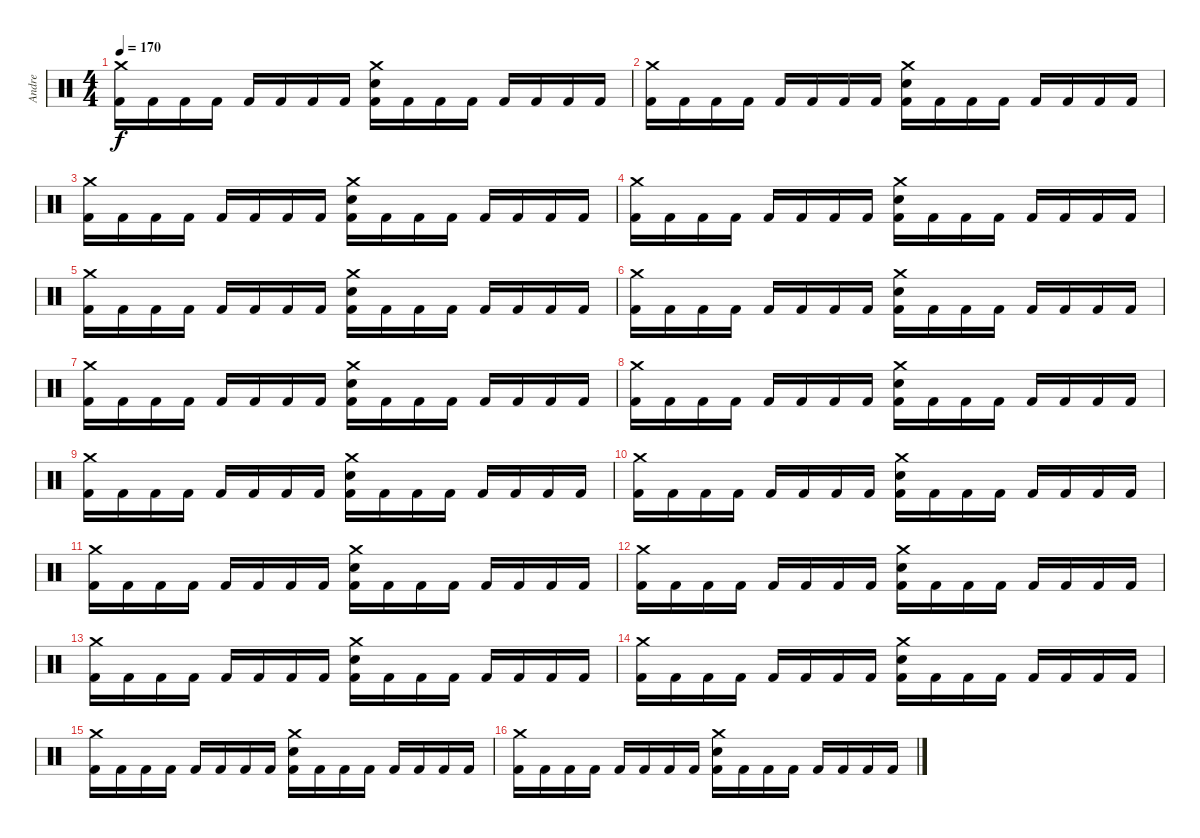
\track ("Andre" "Andre") {instrument percussion}
\staff {score}
\articulation defaults
\ts (4 4)
\tempo 170
\clef neutral
\ks c
("Crash medium (hit)" "Kick (hit) 2").16{dy f} "Kick (hit) 2".16 "Kick (hit) 2".16 "Kick (hit) 2".16 "Kick (hit) 2".16 "Kick (hit) 2".16 "Kick (hit) 2".16 "Kick (hit) 2".16 ("Crash medium (hit)" "Snare (hit) 2" "Kick (hit) 2").16 "Kick (hit) 2".16 "Kick (hit) 2".16 "Kick (hit) 2".16 "Kick (hit) 2".16 "Kick (hit) 2".16 "Kick (hit) 2".16 "Kick (hit) 2".16 |
("Crash medium (hit)" "Kick (hit) 2").16 "Kick (hit) 2".16 "Kick (hit) 2".16 "Kick (hit) 2".16 "Kick (hit) 2".16 "Kick (hit) 2".16 "Kick (hit) 2".16 "Kick (hit) 2".16 ("Crash medium (hit)" "Snare (hit) 2" "Kick (hit) 2").16 "Kick (hit) 2".16 "Kick (hit) 2".16 "Kick (hit) 2".16 "Kick (hit) 2".16 "Kick (hit) 2".16 "Kick (hit) 2".16 "Kick (hit) 2".16 |
("Crash medium (hit)" "Kick (hit) 2").16 "Kick (hit) 2".16 "Kick (hit) 2".16 "Kick (hit) 2".16 "Kick (hit) 2".16 "Kick (hit) 2".16 "Kick (hit) 2".16 "Kick (hit) 2".16 ("Crash medium (hit)" "Snare (hit) 2" "Kick (hit) 2").16 "Kick (hit) 2".16 "Kick (hit) 2".16 "Kick (hit) 2".16 "Kick (hit) 2".16 "Kick (hit) 2".16 "Kick (hit) 2".16 "Kick (hit) 2".16 |
("Crash medium (hit)" "Kick (hit) 2").16 "Kick (hit) 2".16 "Kick (hit) 2".16 "Kick (hit) 2".16 "Kick (hit) 2".16 "Kick (hit) 2".16 "Kick (hit) 2".16 "Kick (hit) 2".16 ("Crash medium (hit)" "Snare (hit) 2" "Kick (hit) 2").16 "Kick (hit) 2".16 "Kick (hit) 2".16 "Kick (hit) 2".16 "Kick (hit) 2".16 "Kick (hit) 2".16 "Kick (hit) 2".16 "Kick (hit) 2".16 |
("Crash medium (hit)" "Kick (hit) 2").16 "Kick (hit) 2".16 "Kick (hit) 2".16 "Kick (hit) 2".16 "Kick (hit) 2".16 "Kick (hit) 2".16 "Kick (hit) 2".16 "Kick (hit) 2".16 ("Crash medium (hit)" "Snare (hit) 2" "Kick (hit) 2").16 "Kick (hit) 2".16 "Kick (hit) 2".16 "Kick (hit) 2".16 "Kick (hit) 2".16 "Kick (hit) 2".16 "Kick (hit) 2".16 "Kick (hit) 2".16 |
("Crash medium (hit)" "Kick (hit) 2").16 "Kick (hit) 2".16 "Kick (hit) 2".16 "Kick (hit) 2".16 "Kick (hit) 2".16 "Kick (hit) 2".16 "Kick (hit) 2".16 "Kick (hit) 2".16 ("Crash medium (hit)" "Snare (hit) 2" "Kick (hit) 2").16 "Kick (hit) 2".16 "Kick (hit) 2".16 "Kick (hit) 2".16 "Kick (hit) 2".16 "Kick (hit) 2".16 "Kick (hit) 2".16 "Kick (hit) 2".16 |
("Crash medium (hit)" "Kick (hit) 2").16 "Kick (hit) 2".16 "Kick (hit) 2".16 "Kick (hit) 2".16 "Kick (hit) 2".16 "Kick (hit) 2".16 "Kick (hit) 2".16 "Kick (hit) 2".16 ("Crash medium (hit)" "Snare (hit) 2" "Kick (hit) 2").16 "Kick (hit) 2".16 "Kick (hit) 2".16 "Kick (hit) 2".16 "Kick (hit) 2".16 "Kick (hit) 2".16 "Kick (hit) 2".16 "Kick (hit) 2".16 |
("Crash medium (hit)" "Kick (hit) 2").16 "Kick (hit) 2".16 "Kick (hit) 2".16 "Kick (hit) 2".16 "Kick (hit) 2".16 "Kick (hit) 2".16 "Kick (hit) 2".16 "Kick (hit) 2".16 ("Crash medium (hit)" "Snare (hit) 2" "Kick (hit) 2").16 "Kick (hit) 2".16 "Kick (hit) 2".16 "Kick (hit) 2".16 "Kick (hit) 2".16 "Kick (hit) 2".16 "Kick (hit) 2".16 "Kick (hit) 2".16 |
("Crash medium (hit)" "Kick (hit) 2").16 "Kick (hit) 2".16 "Kick (hit) 2".16 "Kick (hit) 2".16 "Kick (hit) 2".16 "Kick (hit) 2".16 "Kick (hit) 2".16 "Kick (hit) 2".16 ("Crash medium (hit)" "Snare (hit) 2" "Kick (hit) 2").16 "Kick (hit) 2".16 "Kick (hit) 2".16 "Kick (hit) 2".16 "Kick (hit) 2".16 "Kick (hit) 2".16 "Kick (hit) 2".16 "Kick (hit) 2".16 |
("Crash medium (hit)" "Kick (hit) 2").16 "Kick (hit) 2".16 "Kick (hit) 2".16 "Kick (hit) 2".16 "Kick (hit) 2".16 "Kick (hit) 2".16 "Kick (hit) 2".16 "Kick (hit) 2".16 ("Crash medium (hit)" "Snare (hit) 2" "Kick (hit) 2").16 "Kick (hit) 2".16 "Kick (hit) 2".16 "Kick (hit) 2".16 "Kick (hit) 2".16 "Kick (hit) 2".16 "Kick (hit) 2".16 "Kick (hit) 2".16 |
("Crash medium (hit)" "Kick (hit) 2").16 "Kick (hit) 2".16 "Kick (hit) 2".16 "Kick (hit) 2".16 "Kick (hit) 2".16 "Kick (hit) 2".16 "Kick (hit) 2".16 "Kick (hit) 2".16 ("Crash medium (hit)" "Snare (hit) 2" "Kick (hit) 2").16 "Kick (hit) 2".16 "Kick (hit) 2".16 "Kick (hit) 2".16 "Kick (hit) 2".16 "Kick (hit) 2".16 "Kick (hit) 2".16 "Kick (hit) 2".16 |
("Crash medium (hit)" "Kick (hit) 2").16 "Kick (hit) 2".16 "Kick (hit) 2".16 "Kick (hit) 2".16 "Kick (hit) 2".16 "Kick (hit) 2".16 "Kick (hit) 2".16 "Kick (hit) 2".16 ("Crash medium (hit)" "Snare (hit) 2" "Kick (hit) 2").16 "Kick (hit) 2".16 "Kick (hit) 2".16 "Kick (hit) 2".16 "Kick (hit) 2".16 "Kick (hit) 2".16 "Kick (hit) 2".16 "Kick (hit) 2".16 |
("Crash medium (hit)" "Kick (hit) 2").16 "Kick (hit) 2".16 "Kick (hit) 2".16 "Kick (hit) 2".16 "Kick (hit) 2".16 "Kick (hit) 2".16 "Kick (hit) 2".16 "Kick (hit) 2".16 ("Crash medium (hit)" "Snare (hit) 2" "Kick (hit) 2").16 "Kick (hit) 2".16 "Kick (hit) 2".16 "Kick (hit) 2".16 "Kick (hit) 2".16 "Kick (hit) 2".16 "Kick (hit) 2".16 "Kick (hit) 2".16 |
("Crash medium (hit)" "Kick (hit) 2").16 "Kick (hit) 2".16 "Kick (hit) 2".16 "Kick (hit) 2".16 "Kick (hit) 2".16 "Kick (hit) 2".16 "Kick (hit) 2".16 "Kick (hit) 2".16 ("Crash medium (hit)" "Snare (hit) 2" "Kick (hit) 2").16 "Kick (hit) 2".16 "Kick (hit) 2".16 "Kick (hit) 2".16 "Kick (hit) 2".16 "Kick (hit) 2".16 "Kick (hit) 2".16 "Kick (hit) 2".16 |
("Crash medium (hit)" "Kick (hit) 2").16 "Kick (hit) 2".16 "Kick (hit) 2".16 "Kick (hit) 2".16 "Kick (hit) 2".16 "Kick (hit) 2".16 "Kick (hit) 2".16 "Kick (hit) 2".16 ("Crash medium (hit)" "Snare (hit) 2" "Kick (hit) 2").16 "Kick (hit) 2".16 "Kick (hit) 2".16 "Kick (hit) 2".16 "Kick (hit) 2".16 "Kick (hit) 2".16 "Kick (hit) 2".16 "Kick (hit) 2".16 |
("Crash medium (hit)" "Kick (hit) 2").16 "Kick (hit) 2".16 "Kick (hit) 2".16 "Kick (hit) 2".16 "Kick (hit) 2".16 "Kick (hit) 2".16 "Kick (hit) 2".16 "Kick (hit) 2".16 ("Crash medium (hit)" "Snare (hit) 2" "Kick (hit) 2").16 "Kick (hit) 2".16 "Kick (hit) 2".16 "Kick (hit) 2".16 "Kick (hit) 2".16 "Kick (hit) 2".16 "Kick (hit) 2".16 "Kick (hit) 2".16
